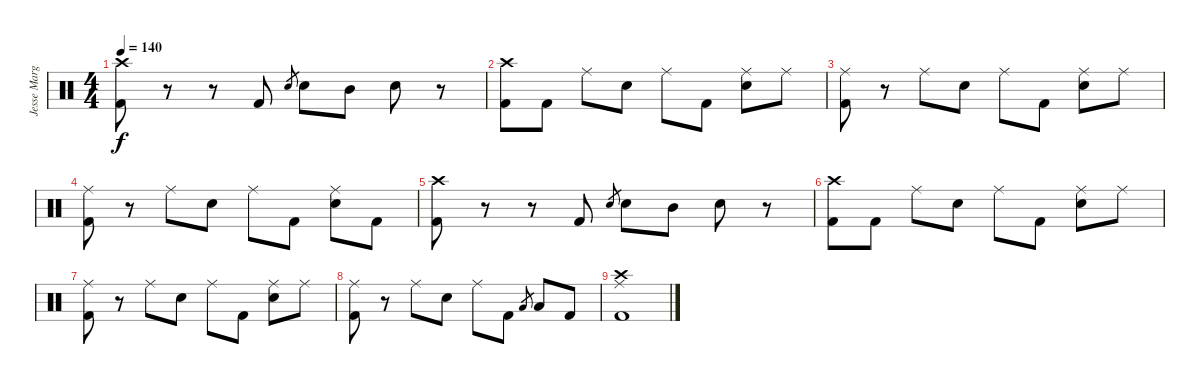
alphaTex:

\track ("Jesse Margera" "Jesse Marg") {instrument percussion}
\staff {score}
\articulation defaults
\ts (4 4)
\tempo 140
\clef neutral
\ks c
("Crash high (hit)" "Kick (hit) 2").8{dy f} r.8 r.8 "Kick (hit) 2".8 "Electric Snare (hit)".8{gr} "Electric Snare (hit)".8 "Mid Tom (hit)".8 "Electric Snare (hit)".8 r.8 |
("Crash high (hit)" "Kick (hit) 2").8 "Kick (hit) 2".8 "Ride (middle)".8 "Electric Snare (hit)".8 "Ride (middle)".8 "Kick (hit) 2".8 ("Ride (middle)" "Electric Snare (hit)").8 "Ride (middle)".8 |
("Ride (middle)" "Kick (hit) 2").8 r.8 "Ride (middle)".8 "Electric Snare (hit)".8 "Ride (middle)".8 "Kick (hit) 2".8 ("Ride (middle)" "Electric Snare (hit)").8 "Ride (middle)".8 |
("Ride (middle)" "Kick (hit) 2").8 r.8 "Ride (middle)".8 "Electric Snare (hit)".8 "Ride (middle)".8 "Kick (hit) 2".8 ("Ride (middle)" "Electric Snare (hit)").8 "Kick (hit) 2".8 |
("Crash high (hit)" "Kick (hit) 2").8 r.8 r.8 "Kick (hit) 2".8 "Electric Snare (hit)".8{gr} "Electric Snare (hit)".8 "Mid Tom (hit)".8 "Electric Snare (hit)".8 r.8 |
("Crash high (hit)" "Kick (hit) 2").8 "Kick (hit) 2".8 "Ride (middle)".8 "Electric Snare (hit)".8 "Ride (middle)".8 "Kick (hit) 2".8 ("Ride (middle)" "Electric Snare (hit)").8 "Ride (middle)".8 |
("Ride (middle)" "Kick (hit) 2").8 r.8 "Ride (middle)".8 "Electric Snare (hit)".8 "Ride (middle)".8 "Kick (hit) 2".8 ("Ride (middle)" "Electric Snare (hit)").8 "Ride (middle)".8 |
("Ride (middle)" "Kick (hit) 2").8 r.8 "Ride (middle)".8 "Electric Snare (hit)".8 "Ride (middle)".8 "Kick (hit) 2".8 "Low Tom (hit)".8{gr} "Low Tom (hit)".8 "Kick (hit) 2".8 |
("Ride (middle)" "Crash high (hit)" "Kick (hit) 2").1
